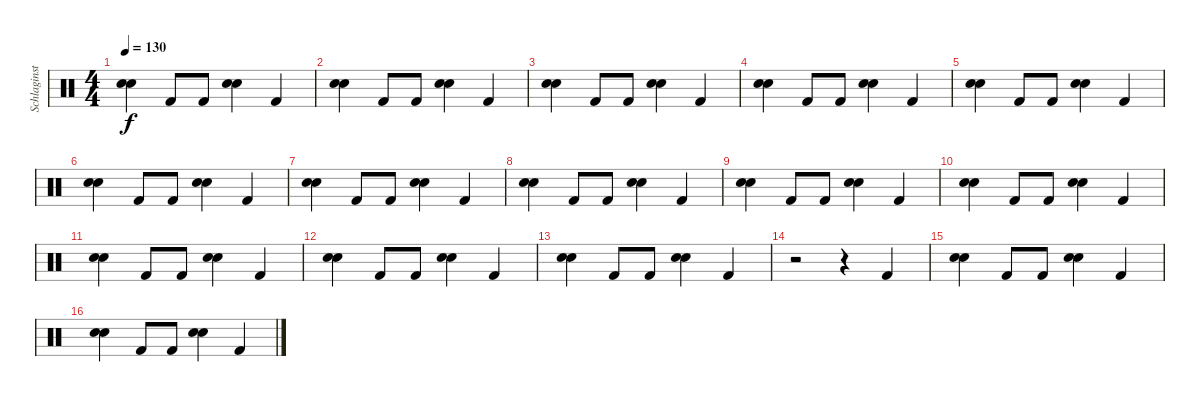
\track ("Schlaginstrumente - Auswahl" "Schlaginst") {instrument percussion}
\staff {score}
\articulation defaults
\ts (4 4)
\tempo 130
\clef neutral
\ks c
("Snare (hit) 2" "Electric Snare (hit)").4{dy f} "Kick (hit) 2".8 "Kick (hit) 2".8 ("Snare (hit) 2" "Electric Snare (hit)").4 "Kick (hit) 2".4 |
("Snare (hit) 2" "Electric Snare (hit)").4 "Kick (hit) 2".8 "Kick (hit) 2".8 ("Snare (hit) 2" "Electric Snare (hit)").4 "Kick (hit) 2".4 |
("Snare (hit) 2" "Electric Snare (hit)").4 "Kick (hit) 2".8 "Kick (hit) 2".8 ("Snare (hit) 2" "Electric Snare (hit)").4 "Kick (hit) 2".4 |
("Snare (hit) 2" "Electric Snare (hit)").4 "Kick (hit) 2".8 "Kick (hit) 2".8 ("Snare (hit) 2" "Electric Snare (hit)").4 "Kick (hit) 2".4 |
("Snare (hit) 2" "Electric Snare (hit)").4 "Kick (hit) 2".8 "Kick (hit) 2".8 ("Snare (hit) 2" "Electric Snare (hit)").4 "Kick (hit) 2".4 |
("Snare (hit) 2" "Electric Snare (hit)").4 "Kick (hit) 2".8 "Kick (hit) 2".8 ("Snare (hit) 2" "Electric Snare (hit)").4 "Kick (hit) 2".4 |
("Snare (hit) 2" "Electric Snare (hit)").4 "Kick (hit) 2".8 "Kick (hit) 2".8 ("Snare (hit) 2" "Electric Snare (hit)").4 "Kick (hit) 2".4 |
("Snare (hit) 2" "Electric Snare (hit)").4 "Kick (hit) 2".8 "Kick (hit) 2".8 ("Snare (hit) 2" "Electric Snare (hit)").4 "Kick (hit) 2".4 |
("Snare (hit) 2" "Electric Snare (hit)").4 "Kick (hit) 2".8 "Kick (hit) 2".8 ("Snare (hit) 2" "Electric Snare (hit)").4 "Kick (hit) 2".4 |
("Snare (hit) 2" "Electric Snare (hit)").4 "Kick (hit) 2".8 "Kick (hit) 2".8 ("Snare (hit) 2" "Electric Snare (hit)").4 "Kick (hit) 2".4 |
("Snare (hit) 2" "Electric Snare (hit)").4 "Kick (hit) 2".8 "Kick (hit) 2".8 ("Snare (hit) 2" "Electric Snare (hit)").4 "Kick (hit) 2".4 |
("Snare (hit) 2" "Electric Snare (hit)").4 "Kick (hit) 2".8 "Kick (hit) 2".8 ("Snare (hit) 2" "Electric Snare (hit)").4 "Kick (hit) 2".4 |
("Snare (hit) 2" "Electric Snare (hit)").4 "Kick (hit) 2".8 "Kick (hit) 2".8 ("Snare (hit) 2" "Electric Snare (hit)").4 "Kick (hit) 2".4 |
r.2 r.4 "Kick (hit) 2".4 |
("Snare (hit) 2" "Electric Snare (hit)").4 "Kick (hit) 2".8 "Kick (hit) 2".8 ("Snare (hit) 2" "Electric Snare (hit)").4 "Kick (hit) 2".4 |
("Snare (hit) 2" "Electric Snare (hit)").4 "Kick (hit) 2".8 "Kick (hit) 2".8 ("Snare (hit) 2" "Electric Snare (hit)").4 "Kick (hit) 2".4
